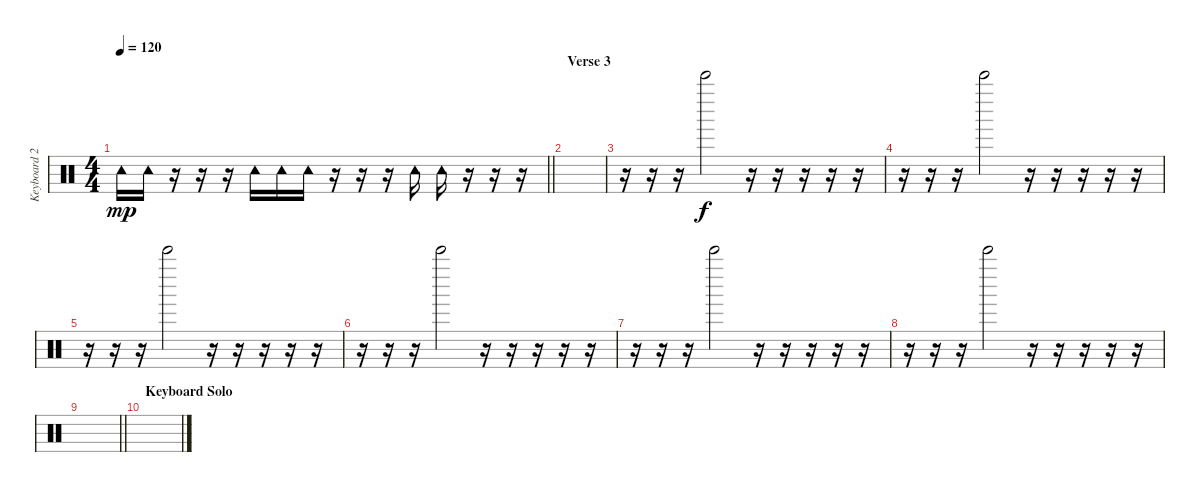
\track ("Keyboard 2" "Keyboard 2") {instrument percussion}
\staff {score}
\articulation defaults
\ts (4 4)
\tempo 120
\clef neutral
\barLineRight lightlight
\ks c "Tambourine (hit)".16{dy mp} "Tambourine (hit)".16
r.16 r.16 r.16 "Tambourine (hit)".16 "Tambourine (hit)".16 "Tambourine (hit)".16 r.16 r.16 r.16 "Tambourine (hit)".16 "Tambourine (hit)".16 r.16 r.16 r.16 |
\section ("" "Verse 3")
|
r.16 r.16 r.16 "Bell Tree (hit)".2{dy f} r.16 r.16 r.16 r.16 r.16 |
r.16 r.16 r.16 "Bell Tree (hit)".2 r.16 r.16 r.16 r.16 r.16 |
r.16 r.16 r.16 "Bell Tree (hit)".2 r.16 r.16 r.16 r.16 r.16 |
r.16 r.16 r.16 "Bell Tree (hit)".2 r.16 r.16 r.16 r.16 r.16 |
r.16 r.16 r.16 "Bell Tree (hit)".2 r.16 r.16 r.16 r.16 r.16 |
r.16 r.16 r.16 "Bell Tree (hit)".2 r.16 r.16 r.16 r.16 r.16 |
\barLineRight lightlight
|
\section ("" "Keyboard Solo")
